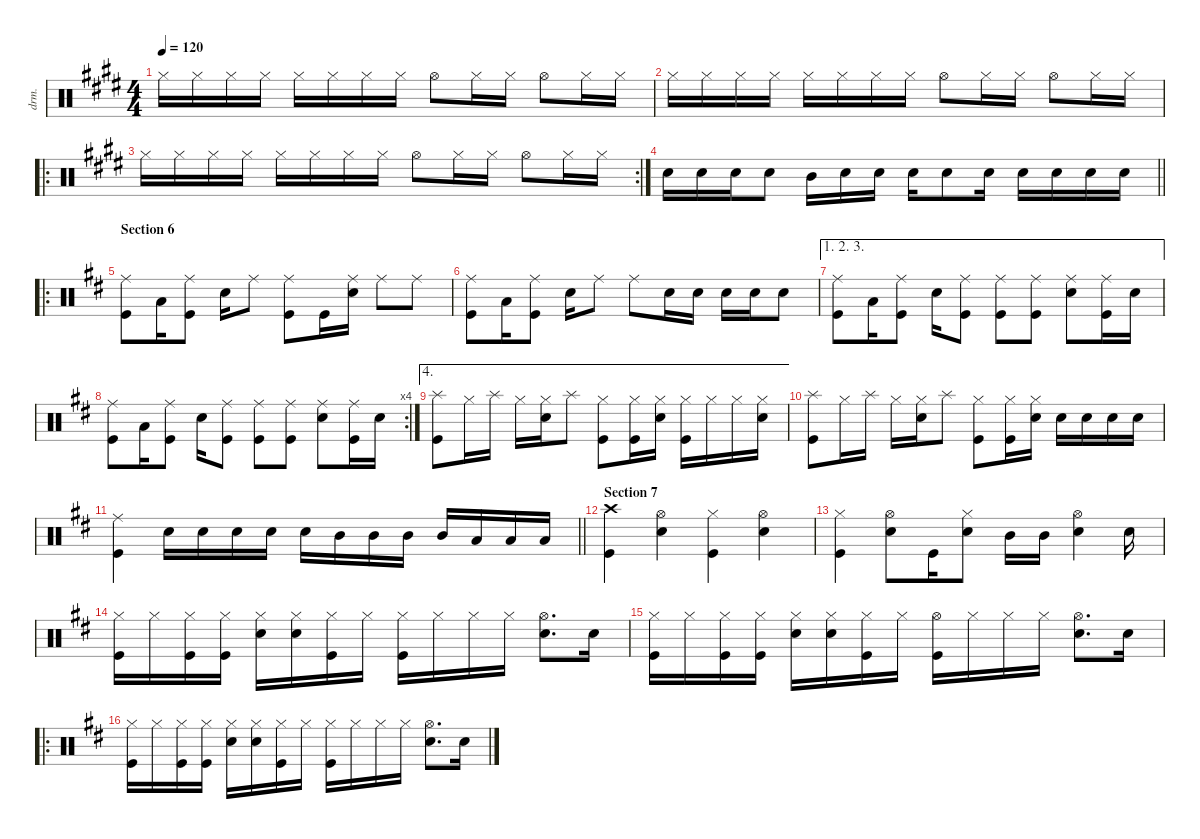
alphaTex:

\defaultSystemsLayout 4
\hideDynamics
\bracketExtendMode nobrackets
\otherSystemsTrackNameOrientation horizontal
\track ("Drums" "drm.") {instrument percussion}
\staff {score}
\articulation defaults
\ts (4 4)
\tempo 120
\clef neutral
\ks e "Hi-Hat (closed)"{acc forcenatural}.16{dy f} "Hi-Hat (closed)"{acc forcenatural}.16 "Hi-Hat (closed)"{acc forcenatural}.16 "Hi-Hat (closed)"{acc forcenatural}.16 "Hi-Hat (closed)"{acc forcenatural}.16 "Hi-Hat (closed)"{acc forcenatural}.16 "Hi-Hat (closed)"{acc forcenatural}.16 "Hi-Hat (closed)"{acc forcenatural}.16 "Hi-Hat (open)"{acc forcenatural}.8 "Hi-Hat (closed)"{acc forcenatural}.16 "Hi-Hat (closed)"{acc forcenatural}.16 "Hi-Hat (open)"{acc forcenatural}.8 "Hi-Hat (closed)"{acc forcenatural}.16 "Hi-Hat (closed)"{acc forcenatural}.16
|
"Hi-Hat (closed)"{acc forcenatural}.16 "Hi-Hat (closed)"{acc forcenatural}.16 "Hi-Hat (closed)"{acc forcenatural}.16 "Hi-Hat (closed)"{acc forcenatural}.16 "Hi-Hat (closed)"{acc forcenatural}.16 "Hi-Hat (closed)"{acc forcenatural}.16 "Hi-Hat (closed)"{acc forcenatural}.16 "Hi-Hat (closed)"{acc forcenatural}.16 "Hi-Hat (open)"{acc forcenatural}.8 "Hi-Hat (closed)"{acc forcenatural}.16 "Hi-Hat (closed)"{acc forcenatural}.16 "Hi-Hat (open)"{acc forcenatural}.8 "Hi-Hat (closed)"{acc forcenatural}.16 "Hi-Hat (closed)"{acc forcenatural}.16 |
\ro
\rc 2 "Hi-Hat (closed)"{acc forcenatural}.16 "Hi-Hat (closed)"{acc forcenatural}.16 "Hi-Hat (closed)"{acc forcenatural}.16 "Hi-Hat (closed)"{acc forcenatural}.16 "Hi-Hat (closed)"{acc forcenatural}.16 "Hi-Hat (closed)"{acc forcenatural}.16 "Hi-Hat (closed)"{acc forcenatural}.16 "Hi-Hat (closed)"{acc forcenatural}.16 "Hi-Hat (open)"{acc forcenatural}.8 "Hi-Hat (closed)"{acc forcenatural}.16 "Hi-Hat (closed)"{acc forcenatural}.16 "Hi-Hat (open)"{acc forcenatural}.8 "Hi-Hat (closed)"{acc forcenatural}.16 "Hi-Hat (closed)"{acc forcenatural}.16
|
\barLineRight lightlight "Snare (hit) 2"{acc forcenatural}.16 "Snare (hit) 2"{acc forcenatural}.16 "Snare (hit) 2"{acc forcenatural}.16 "Snare (hit) 2"{acc forcenatural}.8 "Mid Tom (hit)"{acc forcenatural}.16 "Snare (hit) 2"{acc forcenatural}.16 "Snare (hit) 2"{acc forcenatural}.16 "Snare (hit) 2"{acc forcenatural}.16 "Snare (hit) 2"{acc forcenatural}.8 "Snare (hit) 2"{acc forcenatural}.16 "Snare (hit) 2"{acc forcenatural}.16 "Snare (hit) 2"{acc forcenatural}.16 "Snare (hit) 2"{acc forcenatural}.16 "Snare (hit) 2"{acc forcenatural}.16
|
\ro
\section ("" "Section 6")
\ks d
("Ride (middle)"{acc forcenatural} "Kick (hit)"{acc forcenatural}).8 "Low Tom (hit)"{acc forcenatural}.16 ("Ride (middle)"{acc forcenatural} "Kick (hit)"{acc forcenatural}).8 "Snare (hit) 2"{acc forcenatural}.16 "Ride (middle)"{acc forcenatural}.8 ("Ride (middle)"{acc forcenatural} "Kick (hit)"{acc forcenatural}).8 "Kick (hit)"{acc forcenatural}.16 ("Ride (middle)"{acc forcenatural} "Snare (hit) 2"{acc forcenatural}).16 "Ride (middle)"{acc forcenatural}.8 "Ride (middle)"{acc forcenatural}.8 |
("Ride (middle)"{acc forcenatural} "Kick (hit)"{acc forcenatural}).8 "Low Tom (hit)"{acc forcenatural}.16 ("Ride (middle)"{acc forcenatural} "Kick (hit)"{acc forcenatural}).8 "Snare (hit) 2"{acc forcenatural}.16 "Ride (middle)"{acc forcenatural}.8 "Ride (middle)"{acc forcenatural}.8 "Snare (hit) 2"{acc forcenatural}.16 "Snare (hit) 2"{acc forcenatural}.16 "Snare (hit) 2"{acc forcenatural}.16 "Snare (hit) 2"{acc forcenatural}.16 "Snare (hit) 2"{acc forcenatural}.8 |
\ae (1 2 3)
("Ride (middle)"{acc forcenatural} "Kick (hit)"{acc forcenatural}).8 "Low Tom (hit)"{acc forcenatural}.16 ("Ride (middle)"{acc forcenatural} "Kick (hit)"{acc forcenatural}).8 "Snare (hit) 2"{acc forcenatural}.16 ("Ride (middle)"{acc forcenatural} "Kick (hit)"{acc forcenatural}).8 ("Ride (middle)"{acc forcenatural} "Kick (hit)"{acc forcenatural}).8 ("Ride (middle)"{acc forcenatural} "Kick (hit)"{acc forcenatural}).8 ("Ride (middle)"{acc forcenatural} "Snare (hit) 2"{acc forcenatural}).8 ("Ride (middle)"{acc forcenatural} "Kick (hit)"{acc forcenatural}).16 "Snare (hit) 2"{acc forcenatural}.16 |
\rc 4
("Ride (middle)"{acc forcenatural} "Kick (hit)"{acc forcenatural}).8 "Low Tom (hit)"{acc forcenatural}.16 ("Ride (middle)"{acc forcenatural} "Kick (hit)"{acc forcenatural}).8 "Snare (hit) 2"{acc forcenatural}.16 ("Ride (middle)"{acc forcenatural} "Kick (hit)"{acc forcenatural}).8 ("Ride (middle)"{acc forcenatural} "Kick (hit)"{acc forcenatural}).8 ("Ride (middle)"{acc forcenatural} "Kick (hit)"{acc forcenatural}).8 ("Ride (middle)"{acc forcenatural} "Snare (hit) 2"{acc forcenatural}).8 ("Ride (middle)"{acc forcenatural} "Kick (hit)"{acc forcenatural}).16 "Snare (hit) 2"{acc forcenatural}.16 |
\ae 4
("Splash (hit)"{acc forcenatural} "Kick (hit)"{acc forcenatural}).8 "Hi-Hat (closed)"{acc forcenatural}.16 "Splash (hit)"{acc forcenatural}.16 "Hi-Hat (closed)"{acc forcenatural}.16 ("Hi-Hat (closed)"{acc forcenatural} "Snare (hit) 2"{acc forcenatural}).16 "Splash (hit)"{acc forcenatural}.8 ("Hi-Hat (closed)"{acc forcenatural} "Kick (hit)"{acc forcenatural}).8 ("Hi-Hat (closed)"{acc forcenatural} "Kick (hit)"{acc forcenatural}).16 ("Hi-Hat (closed)"{acc forcenatural} "Snare (hit) 2"{acc forcenatural}).16 ("Hi-Hat (closed)"{acc forcenatural} "Kick (hit)"{acc forcenatural}).16 "Hi-Hat (closed)"{acc forcenatural}.16 "Hi-Hat (closed)"{acc forcenatural}.16 ("Hi-Hat (closed)"{acc forcenatural} "Snare (hit) 2"{acc forcenatural}).16 |
("Splash (hit)"{acc forcenatural} "Kick (hit)"{acc forcenatural}).8 "Hi-Hat (closed)"{acc forcenatural}.16 "Splash (hit)"{acc forcenatural}.16 "Hi-Hat (closed)"{acc forcenatural}.16 ("Hi-Hat (closed)"{acc forcenatural} "Snare (hit) 2"{acc forcenatural}).16 "Splash (hit)"{acc forcenatural}.8 ("Hi-Hat (closed)"{acc forcenatural} "Kick (hit)"{acc forcenatural}).8 ("Hi-Hat (closed)"{acc forcenatural} "Kick (hit)"{acc forcenatural}).16 ("Hi-Hat (closed)"{acc forcenatural} "Snare (hit) 2"{acc forcenatural}).16 "Snare (hit) 2"{acc forcenatural}.16 "Snare (hit) 2"{acc forcenatural}.16 "Snare (hit) 2"{acc forcenatural}.16 "Snare (hit) 2"{acc forcenatural}.16 |
\barLineRight lightlight
("Ride (middle)"{acc forcenatural} "Kick (hit)"{acc forcenatural}).4 "Snare (hit) 2"{acc forcenatural}.16 "Snare (hit) 2"{acc forcenatural}.16 "Snare (hit) 2"{acc forcenatural}.16 "Snare (hit) 2"{acc forcenatural}.16 "Snare (hit) 2"{acc forcenatural}.16 "Mid Tom (hit)"{acc forcenatural}.16 "Mid Tom (hit)"{acc forcenatural}.16 "Mid Tom (hit)"{acc forcenatural}.16 "Mid Tom (hit)"{acc forcenatural}.16 "Low Tom (hit)"{acc forcenatural}.16 "Low Tom (hit)"{acc forcenatural}.16 "Low Tom (hit)"{acc forcenatural}.16 |
\section ("" "Section 7")
("Crash high (hit)"{acc forcenatural} "Kick (hit)"{acc forcenatural}).4 ("Hi-Hat (open)"{acc forcenatural} "Snare (hit) 2"{acc forcenatural}).4 ("Hi-Hat (closed)"{acc forcenatural} "Kick (hit)"{acc forcenatural}).4 ("Hi-Hat (open)"{acc forcenatural} "Snare (hit) 2"{acc forcenatural}).4 |
("Hi-Hat (closed)"{acc forcenatural} "Kick (hit)"{acc forcenatural}).4 ("Hi-Hat (open)"{acc forcenatural} "Snare (hit) 2"{acc forcenatural}).8 "Kick (hit)"{acc forcenatural}.16 ("Hi-Hat (closed)"{acc forcenatural} "Snare (hit) 2"{acc forcenatural}).8 "Mid Tom (hit)"{acc forcenatural}.16 "Mid Tom (hit)"{acc forcenatural}.16 ("Hi-Hat (open)"{acc forcenatural} "Snare (hit) 2"{acc forcenatural}).4 "Snare (hit) 2"{acc forcenatural}.16 |
("Hi-Hat (closed)"{acc forcenatural} "Kick (hit)"{acc forcenatural}).16 "Hi-Hat (closed)"{acc forcenatural}.16 ("Hi-Hat (closed)"{acc forcenatural} "Kick (hit)"{acc forcenatural}).16 ("Hi-Hat (closed)"{acc forcenatural} "Kick (hit)"{acc forcenatural}).16 ("Hi-Hat (closed)"{acc forcenatural} "Snare (hit) 2"{acc forcenatural}).16 ("Hi-Hat (closed)"{acc forcenatural} "Snare (hit) 2"{acc forcenatural}).16 ("Hi-Hat (closed)"{acc forcenatural} "Kick (hit)"{acc forcenatural}).16 "Hi-Hat (closed)"{acc forcenatural}.16 ("Hi-Hat (closed)"{acc forcenatural} "Kick (hit)"{acc forcenatural}).16 "Hi-Hat (closed)"{acc forcenatural}.16 "Hi-Hat (closed)"{acc forcenatural}.16 "Hi-Hat (closed)"{acc forcenatural}.16 ("Hi-Hat (open)"{acc forcenatural} "Snare (hit) 2"{acc forcenatural}).8{d} "Snare (hit) 2"{acc forcenatural}.16 |
("Hi-Hat (closed)"{acc forcenatural} "Kick (hit)"{acc forcenatural}).16 "Hi-Hat (closed)"{acc forcenatural}.16 ("Hi-Hat (closed)"{acc forcenatural} "Kick (hit)"{acc forcenatural}).16 ("Hi-Hat (closed)"{acc forcenatural} "Kick (hit)"{acc forcenatural}).16 ("Hi-Hat (closed)"{acc forcenatural} "Snare (hit) 2"{acc forcenatural}).16 ("Hi-Hat (closed)"{acc forcenatural} "Snare (hit) 2"{acc forcenatural}).16 ("Hi-Hat (closed)"{acc forcenatural} "Kick (hit)"{acc forcenatural}).16 "Hi-Hat (closed)"{acc forcenatural}.16 ("Hi-Hat (open)"{acc forcenatural} "Kick (hit)"{acc forcenatural}).16 "Hi-Hat (closed)"{acc forcenatural}.16 "Hi-Hat (closed)"{acc forcenatural}.16 "Hi-Hat (closed)"{acc forcenatural}.16 ("Hi-Hat (open)"{acc forcenatural} "Snare (hit) 2"{acc forcenatural}).8{d} "Snare (hit) 2"{acc forcenatural}.16 |
\ro
("Hi-Hat (closed)"{acc forcenatural} "Kick (hit)"{acc forcenatural}).16 "Hi-Hat (closed)"{acc forcenatural}.16 ("Hi-Hat (closed)"{acc forcenatural} "Kick (hit)"{acc forcenatural}).16 ("Hi-Hat (closed)"{acc forcenatural} "Kick (hit)"{acc forcenatural}).16 ("Hi-Hat (closed)"{acc forcenatural} "Snare (hit) 2"{acc forcenatural}).16 ("Hi-Hat (closed)"{acc forcenatural} "Snare (hit) 2"{acc forcenatural}).16 ("Hi-Hat (closed)"{acc forcenatural} "Kick (hit)"{acc forcenatural}).16 "Hi-Hat (closed)"{acc forcenatural}.16 ("Hi-Hat (closed)"{acc forcenatural} "Kick (hit)"{acc forcenatural}).16 "Hi-Hat (closed)"{acc forcenatural}.16 "Hi-Hat (closed)"{acc forcenatural}.16 "Hi-Hat (closed)"{acc forcenatural}.16 ("Hi-Hat (open)"{acc forcenatural} "Snare (hit) 2"{acc forcenatural}).8{d} "Snare (hit) 2"{acc forcenatural}.16
